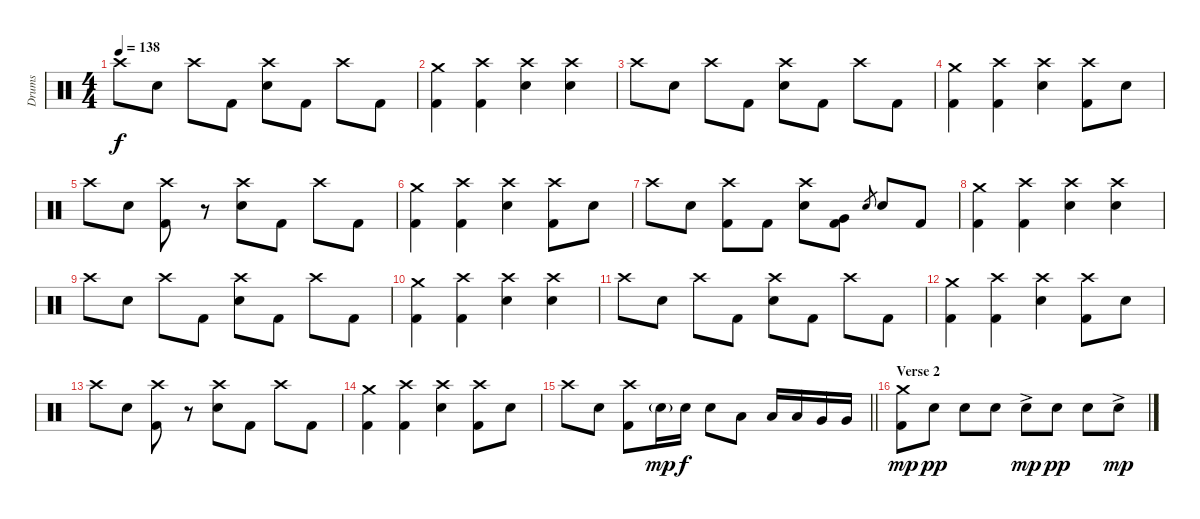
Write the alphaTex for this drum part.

\track ("Drums" "Drums") {instrument percussion}
\staff {score}
\articulation defaults
\ts (4 4)
\tempo 138
\clef neutral
\ks c "Crash high (hit)".8{dy f} "Electric Snare (hit)".8 "Crash high (hit)".8 "Kick (hit) 2".8
("Crash high (hit)" "Electric Snare (hit)").8 "Kick (hit) 2".8 "Crash high (hit)".8 "Kick (hit) 2".8 |
("Crash medium (hit)" "Kick (hit) 2").4 ("Crash high (hit)" "Kick (hit) 2").4 ("Crash high (hit)" "Electric Snare (hit)").4 ("Crash high (hit)" "Electric Snare (hit)").4 |
"Crash high (hit)".8 "Electric Snare (hit)".8 "Crash high (hit)".8 "Kick (hit) 2".8 ("Crash high (hit)" "Electric Snare (hit)").8 "Kick (hit) 2".8 "Crash high (hit)".8 "Kick (hit) 2".8 |
("Crash medium (hit)" "Kick (hit) 2").4 ("Crash high (hit)" "Kick (hit) 2").4 ("Crash high (hit)" "Electric Snare (hit)").4 ("Crash high (hit)" "Kick (hit) 2").8 "Electric Snare (hit)".8 |
"Crash high (hit)".8 "Electric Snare (hit)".8 ("Crash high (hit)" "Kick (hit) 2").8 r.8 ("Crash high (hit)" "Electric Snare (hit)").8 "Kick (hit) 2".8 "Crash high (hit)".8 "Kick (hit) 2".8 |
("Crash medium (hit)" "Kick (hit) 2").4 ("Crash high (hit)" "Kick (hit) 2").4 ("Crash high (hit)" "Electric Snare (hit)").4 ("Crash high (hit)" "Kick (hit) 2").8 "Electric Snare (hit)".8 |
"Crash high (hit)".8 "Electric Snare (hit)".8 ("Crash high (hit)" "Kick (hit) 2").8 "Kick (hit) 2".8 ("Crash high (hit)" "Electric Snare (hit)").8 ("Very Low Tom (hit)" "Kick (hit) 2").8 "Electric Snare (hit)".8{gr} "Electric Snare (hit)".8 "Kick (hit) 2".8 |
("Crash medium (hit)" "Kick (hit) 2").4 ("Crash high (hit)" "Kick (hit) 2").4 ("Crash high (hit)" "Electric Snare (hit)").4 ("Crash high (hit)" "Electric Snare (hit)").4 |
"Crash high (hit)".8 "Electric Snare (hit)".8 "Crash high (hit)".8 "Kick (hit) 2".8 ("Crash high (hit)" "Electric Snare (hit)").8 "Kick (hit) 2".8 "Crash high (hit)".8 "Kick (hit) 2".8 |
("Crash medium (hit)" "Kick (hit) 2").4 ("Crash high (hit)" "Kick (hit) 2").4 ("Crash high (hit)" "Electric Snare (hit)").4 ("Crash high (hit)" "Electric Snare (hit)").4 |
"Crash high (hit)".8 "Electric Snare (hit)".8 "Crash high (hit)".8 "Kick (hit) 2".8 ("Crash high (hit)" "Electric Snare (hit)").8 "Kick (hit) 2".8 "Crash high (hit)".8 "Kick (hit) 2".8 |
("Crash medium (hit)" "Kick (hit) 2").4 ("Crash high (hit)" "Kick (hit) 2").4 ("Crash high (hit)" "Electric Snare (hit)").4 ("Crash high (hit)" "Kick (hit) 2").8 "Electric Snare (hit)".8 |
"Crash high (hit)".8 "Electric Snare (hit)".8 ("Crash high (hit)" "Kick (hit) 2").8 r.8 ("Crash high (hit)" "Electric Snare (hit)").8 "Kick (hit) 2".8 "Crash high (hit)".8 "Kick (hit) 2".8 |
("Crash medium (hit)" "Kick (hit) 2").4 ("Crash high (hit)" "Kick (hit) 2").4 ("Crash high (hit)" "Electric Snare (hit)").4 ("Crash high (hit)" "Kick (hit) 2").8 "Electric Snare (hit)".8 |
\barLineRight lightlight "Crash high (hit)".8 "Electric Snare (hit)".8
("Crash high (hit)" "Kick (hit) 2").8 "Electric Snare (hit)"{g}.16{dy mp} "Electric Snare (hit)".16{dy f} "Electric Snare (hit)".8 "Low Tom (hit)".8 "Low Tom (hit)".16 "Low Tom (hit)".16 "Very Low Tom (hit)".16 "Very Low Tom (hit)".16 |
\section ("" "Verse 2")
("Crash medium (hit)" "Kick (hit) 2").8{dy mp} "Electric Snare (hit)".8{dy pp} "Electric Snare (hit)".8 "Electric Snare (hit)".8 "Electric Snare (hit)"{ac}.8{dy mp} "Electric Snare (hit)".8{dy pp} "Electric Snare (hit)".8 "Electric Snare (hit)"{ac}.8{dy mp}
